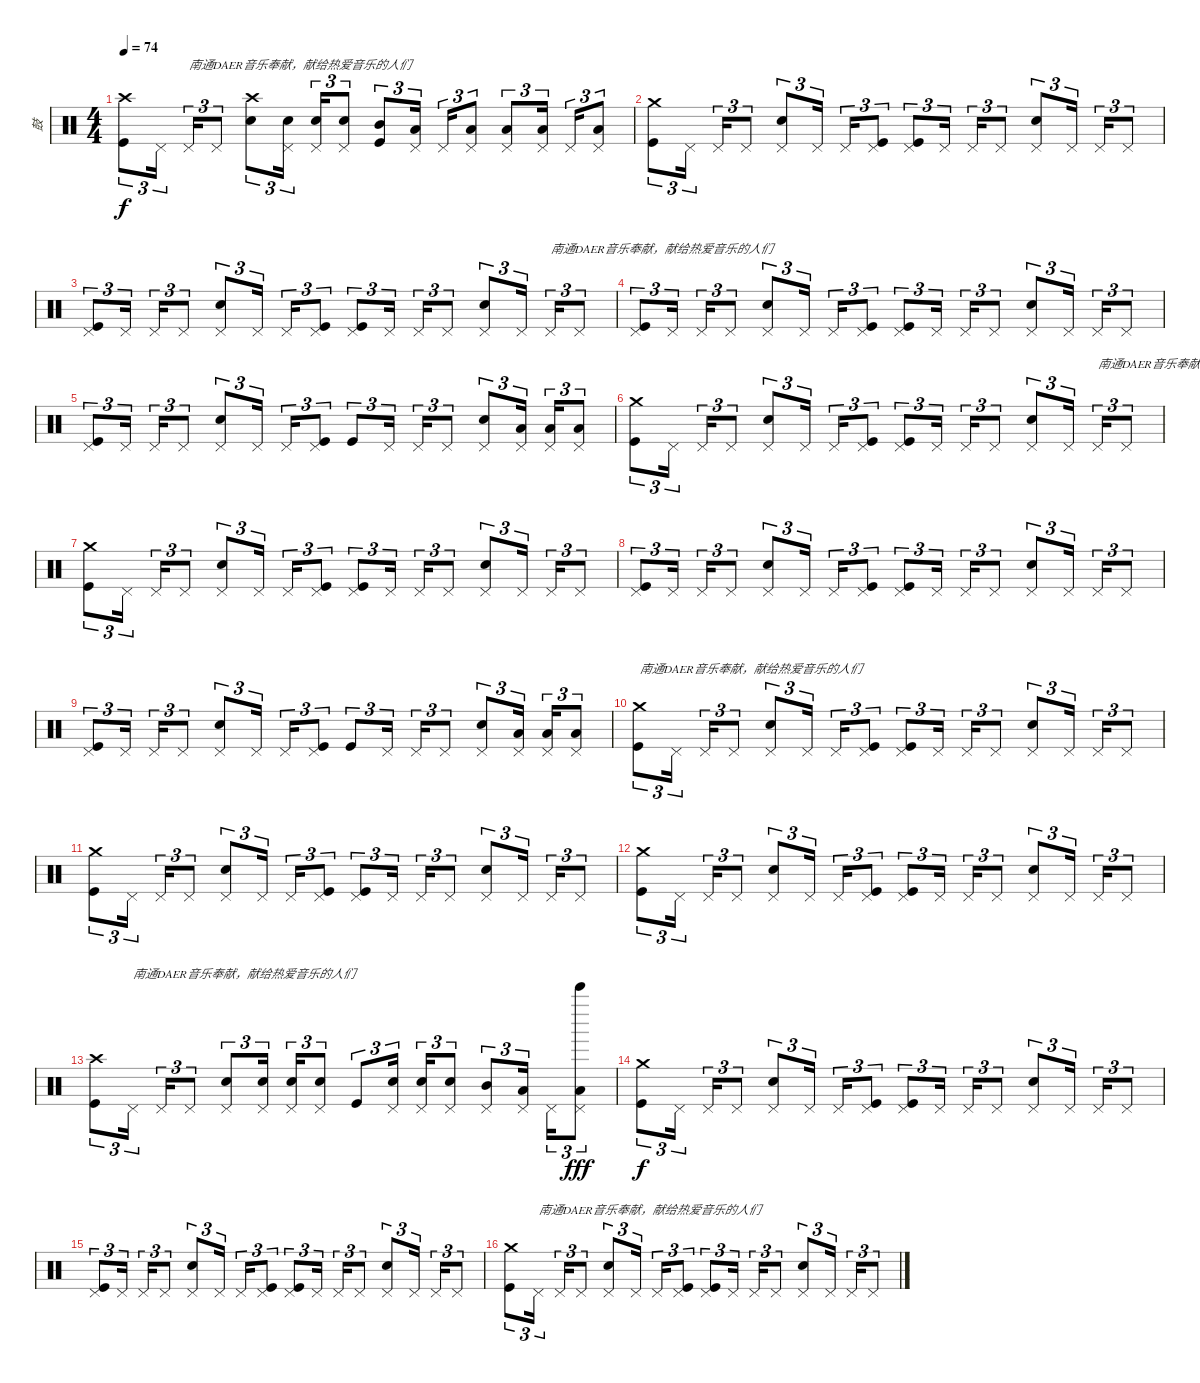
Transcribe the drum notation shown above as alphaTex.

\track ("鼓" "鼓") {instrument percussion}
\staff {score}
\articulation defaults
\ts (4 4)
\tempo 74
\clef neutral
\ks c
("Crash high (hit)" "Kick (hit)").8{tu (3 2) dy f} "Pedal Hi-Hat (hit)".16{tu (3 2)} "Pedal Hi-Hat (hit)".16{tu (3 2) txt "南通DAER音乐奉献，献给热爱音乐的人们"} "Pedal Hi-Hat (hit)".8{tu (3 2)} ("Crash high (hit)" "Electric Snare (hit)").8{tu (3 2)} ("Pedal Hi-Hat (hit)" "Electric Snare (hit)").16{tu (3 2)} ("Pedal Hi-Hat (hit)" "Electric Snare (hit)").16{tu (3 2)} ("Pedal Hi-Hat (hit)" "Electric Snare (hit)").8{tu (3 2)} ("Mid Tom (hit)" "Kick (hit)").8{tu (3 2)} ("Pedal Hi-Hat (hit)" "Low Tom (hit)").16{tu (3 2)} "Pedal Hi-Hat (hit)".16{tu (3 2)} ("Pedal Hi-Hat (hit)" "Low Tom (hit)").8{tu (3 2)} ("Pedal Hi-Hat (hit)" "Low Floor Tom (hit)").8{tu (3 2)} ("Pedal Hi-Hat (hit)" "Low Floor Tom (hit)").16{tu (3 2)} "Pedal Hi-Hat (hit)".16{tu (3 2)} ("Pedal Hi-Hat (hit)" "Low Floor Tom (hit)").8{tu (3 2)} |
("Crash medium (hit)" "Kick (hit)").8{tu (3 2)} "Pedal Hi-Hat (hit)".16{tu (3 2)} "Pedal Hi-Hat (hit)".16{tu (3 2)} "Pedal Hi-Hat (hit)".8{tu (3 2)} ("Pedal Hi-Hat (hit)" "Electric Snare (hit)").8{tu (3 2)} "Pedal Hi-Hat (hit)".16{tu (3 2)} "Pedal Hi-Hat (hit)".16{tu (3 2)} ("Pedal Hi-Hat (hit)" "Kick (hit)").8{tu (3 2)} ("Pedal Hi-Hat (hit)" "Kick (hit)").8{tu (3 2)} "Pedal Hi-Hat (hit)".16{tu (3 2)} "Pedal Hi-Hat (hit)".16{tu (3 2)} "Pedal Hi-Hat (hit)".8{tu (3 2)} ("Pedal Hi-Hat (hit)" "Electric Snare (hit)").8{tu (3 2)} "Pedal Hi-Hat (hit)".16{tu (3 2)} "Pedal Hi-Hat (hit)".16{tu (3 2)} "Pedal Hi-Hat (hit)".8{tu (3 2)} |
("Pedal Hi-Hat (hit)" "Kick (hit)").8{tu (3 2)} "Pedal Hi-Hat (hit)".16{tu (3 2)} "Pedal Hi-Hat (hit)".16{tu (3 2)} "Pedal Hi-Hat (hit)".8{tu (3 2)} ("Pedal Hi-Hat (hit)" "Electric Snare (hit)").8{tu (3 2)} "Pedal Hi-Hat (hit)".16{tu (3 2)} "Pedal Hi-Hat (hit)".16{tu (3 2)} ("Pedal Hi-Hat (hit)" "Kick (hit)").8{tu (3 2)} ("Pedal Hi-Hat (hit)" "Kick (hit)").8{tu (3 2)} "Pedal Hi-Hat (hit)".16{tu (3 2)} "Pedal Hi-Hat (hit)".16{tu (3 2)} "Pedal Hi-Hat (hit)".8{tu (3 2)} ("Pedal Hi-Hat (hit)" "Electric Snare (hit)").8{tu (3 2)} "Pedal Hi-Hat (hit)".16{tu (3 2)} "Pedal Hi-Hat (hit)".16{tu (3 2) txt "南通DAER音乐奉献，献给热爱音乐的人们"} "Pedal Hi-Hat (hit)".8{tu (3 2)} |
("Pedal Hi-Hat (hit)" "Kick (hit)").8{tu (3 2)} "Pedal Hi-Hat (hit)".16{tu (3 2)} "Pedal Hi-Hat (hit)".16{tu (3 2)} "Pedal Hi-Hat (hit)".8{tu (3 2)} ("Pedal Hi-Hat (hit)" "Electric Snare (hit)").8{tu (3 2)} "Pedal Hi-Hat (hit)".16{tu (3 2)} "Pedal Hi-Hat (hit)".16{tu (3 2)} ("Pedal Hi-Hat (hit)" "Kick (hit)").8{tu (3 2)} ("Pedal Hi-Hat (hit)" "Kick (hit)").8{tu (3 2)} "Pedal Hi-Hat (hit)".16{tu (3 2)} "Pedal Hi-Hat (hit)".16{tu (3 2)} "Pedal Hi-Hat (hit)".8{tu (3 2)} ("Pedal Hi-Hat (hit)" "Electric Snare (hit)").8{tu (3 2)} "Pedal Hi-Hat (hit)".16{tu (3 2)} "Pedal Hi-Hat (hit)".16{tu (3 2)} "Pedal Hi-Hat (hit)".8{tu (3 2)} |
("Pedal Hi-Hat (hit)" "Kick (hit)").8{tu (3 2)} "Pedal Hi-Hat (hit)".16{tu (3 2)} "Pedal Hi-Hat (hit)".16{tu (3 2)} "Pedal Hi-Hat (hit)".8{tu (3 2)} ("Pedal Hi-Hat (hit)" "Electric Snare (hit)").8{tu (3 2)} "Pedal Hi-Hat (hit)".16{tu (3 2)} "Pedal Hi-Hat (hit)".16{tu (3 2)} ("Pedal Hi-Hat (hit)" "Kick (hit)").8{tu (3 2)} "Kick (hit)".8{tu (3 2)} "Pedal Hi-Hat (hit)".16{tu (3 2)} "Pedal Hi-Hat (hit)".16{tu (3 2)} "Pedal Hi-Hat (hit)".8{tu (3 2)} ("Pedal Hi-Hat (hit)" "Electric Snare (hit)").8{tu (3 2)} ("Pedal Hi-Hat (hit)" "Low Tom (hit)").16{tu (3 2)} ("Pedal Hi-Hat (hit)" "Low Tom (hit)").16{tu (3 2)} ("Pedal Hi-Hat (hit)" "Low Tom (hit)").8{tu (3 2)} |
("Crash medium (hit)" "Kick (hit)").8{tu (3 2)} "Pedal Hi-Hat (hit)".16{tu (3 2)} "Pedal Hi-Hat (hit)".16{tu (3 2)} "Pedal Hi-Hat (hit)".8{tu (3 2)} ("Pedal Hi-Hat (hit)" "Electric Snare (hit)").8{tu (3 2)} "Pedal Hi-Hat (hit)".16{tu (3 2)} "Pedal Hi-Hat (hit)".16{tu (3 2)} ("Pedal Hi-Hat (hit)" "Kick (hit)").8{tu (3 2)} ("Pedal Hi-Hat (hit)" "Kick (hit)").8{tu (3 2)} "Pedal Hi-Hat (hit)".16{tu (3 2)} "Pedal Hi-Hat (hit)".16{tu (3 2)} "Pedal Hi-Hat (hit)".8{tu (3 2)} ("Pedal Hi-Hat (hit)" "Electric Snare (hit)").8{tu (3 2)} "Pedal Hi-Hat (hit)".16{tu (3 2)} "Pedal Hi-Hat (hit)".16{tu (3 2) txt "南通DAER音乐奉献，献给热爱音乐的人们"} "Pedal Hi-Hat (hit)".8{tu (3 2)} |
("Crash medium (hit)" "Kick (hit)").8{tu (3 2)} "Pedal Hi-Hat (hit)".16{tu (3 2)} "Pedal Hi-Hat (hit)".16{tu (3 2)} "Pedal Hi-Hat (hit)".8{tu (3 2)} ("Pedal Hi-Hat (hit)" "Electric Snare (hit)").8{tu (3 2)} "Pedal Hi-Hat (hit)".16{tu (3 2)} "Pedal Hi-Hat (hit)".16{tu (3 2)} ("Pedal Hi-Hat (hit)" "Kick (hit)").8{tu (3 2)} ("Pedal Hi-Hat (hit)" "Kick (hit)").8{tu (3 2)} "Pedal Hi-Hat (hit)".16{tu (3 2)} "Pedal Hi-Hat (hit)".16{tu (3 2)} "Pedal Hi-Hat (hit)".8{tu (3 2)} ("Pedal Hi-Hat (hit)" "Electric Snare (hit)").8{tu (3 2)} "Pedal Hi-Hat (hit)".16{tu (3 2)} "Pedal Hi-Hat (hit)".16{tu (3 2)} "Pedal Hi-Hat (hit)".8{tu (3 2)} |
("Pedal Hi-Hat (hit)" "Kick (hit)").8{tu (3 2)} "Pedal Hi-Hat (hit)".16{tu (3 2)} "Pedal Hi-Hat (hit)".16{tu (3 2)} "Pedal Hi-Hat (hit)".8{tu (3 2)} ("Pedal Hi-Hat (hit)" "Electric Snare (hit)").8{tu (3 2)} "Pedal Hi-Hat (hit)".16{tu (3 2)} "Pedal Hi-Hat (hit)".16{tu (3 2)} ("Pedal Hi-Hat (hit)" "Kick (hit)").8{tu (3 2)} ("Pedal Hi-Hat (hit)" "Kick (hit)").8{tu (3 2)} "Pedal Hi-Hat (hit)".16{tu (3 2)} "Pedal Hi-Hat (hit)".16{tu (3 2)} "Pedal Hi-Hat (hit)".8{tu (3 2)} ("Pedal Hi-Hat (hit)" "Electric Snare (hit)").8{tu (3 2)} "Pedal Hi-Hat (hit)".16{tu (3 2)} "Pedal Hi-Hat (hit)".16{tu (3 2)} "Pedal Hi-Hat (hit)".8{tu (3 2)} |
("Pedal Hi-Hat (hit)" "Kick (hit)").8{tu (3 2)} "Pedal Hi-Hat (hit)".16{tu (3 2)} "Pedal Hi-Hat (hit)".16{tu (3 2)} "Pedal Hi-Hat (hit)".8{tu (3 2)} ("Pedal Hi-Hat (hit)" "Electric Snare (hit)").8{tu (3 2)} "Pedal Hi-Hat (hit)".16{tu (3 2)} "Pedal Hi-Hat (hit)".16{tu (3 2)} ("Pedal Hi-Hat (hit)" "Kick (hit)").8{tu (3 2)} "Kick (hit)".8{tu (3 2)} "Pedal Hi-Hat (hit)".16{tu (3 2)} "Pedal Hi-Hat (hit)".16{tu (3 2)} "Pedal Hi-Hat (hit)".8{tu (3 2)} ("Pedal Hi-Hat (hit)" "Electric Snare (hit)").8{tu (3 2)} ("Pedal Hi-Hat (hit)" "Low Tom (hit)").16{tu (3 2)} ("Pedal Hi-Hat (hit)" "Low Tom (hit)").16{tu (3 2)} ("Pedal Hi-Hat (hit)" "Low Tom (hit)").8{tu (3 2)} |
("Crash medium (hit)" "Kick (hit)").8{tu (3 2) txt "南通DAER音乐奉献，献给热爱音乐的人们"} "Pedal Hi-Hat (hit)".16{tu (3 2)} "Pedal Hi-Hat (hit)".16{tu (3 2)} "Pedal Hi-Hat (hit)".8{tu (3 2)} ("Pedal Hi-Hat (hit)" "Electric Snare (hit)").8{tu (3 2)} "Pedal Hi-Hat (hit)".16{tu (3 2)} "Pedal Hi-Hat (hit)".16{tu (3 2)} ("Pedal Hi-Hat (hit)" "Kick (hit)").8{tu (3 2)} ("Pedal Hi-Hat (hit)" "Kick (hit)").8{tu (3 2)} "Pedal Hi-Hat (hit)".16{tu (3 2)} "Pedal Hi-Hat (hit)".16{tu (3 2)} "Pedal Hi-Hat (hit)".8{tu (3 2)} ("Pedal Hi-Hat (hit)" "Electric Snare (hit)").8{tu (3 2)} "Pedal Hi-Hat (hit)".16{tu (3 2)} "Pedal Hi-Hat (hit)".16{tu (3 2)} "Pedal Hi-Hat (hit)".8{tu (3 2)} |
("Crash medium (hit)" "Kick (hit)").8{tu (3 2)} "Pedal Hi-Hat (hit)".16{tu (3 2)} "Pedal Hi-Hat (hit)".16{tu (3 2)} "Pedal Hi-Hat (hit)".8{tu (3 2)} ("Pedal Hi-Hat (hit)" "Electric Snare (hit)").8{tu (3 2)} "Pedal Hi-Hat (hit)".16{tu (3 2)} "Pedal Hi-Hat (hit)".16{tu (3 2)} ("Pedal Hi-Hat (hit)" "Kick (hit)").8{tu (3 2)} ("Pedal Hi-Hat (hit)" "Kick (hit)").8{tu (3 2)} "Pedal Hi-Hat (hit)".16{tu (3 2)} "Pedal Hi-Hat (hit)".16{tu (3 2)} "Pedal Hi-Hat (hit)".8{tu (3 2)} ("Pedal Hi-Hat (hit)" "Electric Snare (hit)").8{tu (3 2)} "Pedal Hi-Hat (hit)".16{tu (3 2)} "Pedal Hi-Hat (hit)".16{tu (3 2)} "Pedal Hi-Hat (hit)".8{tu (3 2)} |
("Crash medium (hit)" "Kick (hit)").8{tu (3 2)} "Pedal Hi-Hat (hit)".16{tu (3 2)} "Pedal Hi-Hat (hit)".16{tu (3 2)} "Pedal Hi-Hat (hit)".8{tu (3 2)} ("Pedal Hi-Hat (hit)" "Electric Snare (hit)").8{tu (3 2)} "Pedal Hi-Hat (hit)".16{tu (3 2)} "Pedal Hi-Hat (hit)".16{tu (3 2)} ("Pedal Hi-Hat (hit)" "Kick (hit)").8{tu (3 2)} ("Pedal Hi-Hat (hit)" "Kick (hit)").8{tu (3 2)} "Pedal Hi-Hat (hit)".16{tu (3 2)} "Pedal Hi-Hat (hit)".16{tu (3 2)} "Pedal Hi-Hat (hit)".8{tu (3 2)} ("Pedal Hi-Hat (hit)" "Electric Snare (hit)").8{tu (3 2)} "Pedal Hi-Hat (hit)".16{tu (3 2)} "Pedal Hi-Hat (hit)".16{tu (3 2)} "Pedal Hi-Hat (hit)".8{tu (3 2)} |
("Crash high (hit)" "Kick (hit)").8{tu (3 2)} "Pedal Hi-Hat (hit)".16{tu (3 2) txt "南通DAER音乐奉献，献给热爱音乐的人们"} "Pedal Hi-Hat (hit)".16{tu (3 2)} "Pedal Hi-Hat (hit)".8{tu (3 2)} ("Pedal Hi-Hat (hit)" "Electric Snare (hit)").8{tu (3 2)} ("Pedal Hi-Hat (hit)" "Electric Snare (hit)").16{tu (3 2)} ("Pedal Hi-Hat (hit)" "Electric Snare (hit)").16{tu (3 2)} ("Pedal Hi-Hat (hit)" "Electric Snare (hit)").8{tu (3 2)} "Kick (hit)".8{tu (3 2)} ("Pedal Hi-Hat (hit)" "Electric Snare (hit)").16{tu (3 2)} ("Pedal Hi-Hat (hit)" "Electric Snare (hit)").16{tu (3 2)} ("Pedal Hi-Hat (hit)" "Electric Snare (hit)").8{tu (3 2)} ("Pedal Hi-Hat (hit)" "Mid Tom (hit)").8{tu (3 2)} ("Pedal Hi-Hat (hit)" "Low Tom (hit)").16{tu (3 2)} "Pedal Hi-Hat (hit)".16{tu (3 2)} ("Bell Tree (hit)" "Pedal Hi-Hat (hit)" "Low Floor Tom (hit)").8{tu (3 2) dy fff} |
("Crash medium (hit)" "Kick (hit)").8{tu (3 2) dy f} "Pedal Hi-Hat (hit)".16{tu (3 2)} "Pedal Hi-Hat (hit)".16{tu (3 2)} "Pedal Hi-Hat (hit)".8{tu (3 2)} ("Pedal Hi-Hat (hit)" "Electric Snare (hit)").8{tu (3 2)} "Pedal Hi-Hat (hit)".16{tu (3 2)} "Pedal Hi-Hat (hit)".16{tu (3 2)} ("Pedal Hi-Hat (hit)" "Kick (hit)").8{tu (3 2)} ("Pedal Hi-Hat (hit)" "Kick (hit)").8{tu (3 2)} "Pedal Hi-Hat (hit)".16{tu (3 2)} "Pedal Hi-Hat (hit)".16{tu (3 2)} "Pedal Hi-Hat (hit)".8{tu (3 2)} ("Pedal Hi-Hat (hit)" "Electric Snare (hit)").8{tu (3 2)} "Pedal Hi-Hat (hit)".16{tu (3 2)} "Pedal Hi-Hat (hit)".16{tu (3 2)} "Pedal Hi-Hat (hit)".8{tu (3 2)} |
("Pedal Hi-Hat (hit)" "Kick (hit)").8{tu (3 2)} "Pedal Hi-Hat (hit)".16{tu (3 2)} "Pedal Hi-Hat (hit)".16{tu (3 2)} "Pedal Hi-Hat (hit)".8{tu (3 2)} ("Pedal Hi-Hat (hit)" "Electric Snare (hit)").8{tu (3 2)} "Pedal Hi-Hat (hit)".16{tu (3 2)} "Pedal Hi-Hat (hit)".16{tu (3 2)} ("Pedal Hi-Hat (hit)" "Kick (hit)").8{tu (3 2)} ("Pedal Hi-Hat (hit)" "Kick (hit)").8{tu (3 2)} "Pedal Hi-Hat (hit)".16{tu (3 2)} "Pedal Hi-Hat (hit)".16{tu (3 2)} "Pedal Hi-Hat (hit)".8{tu (3 2)} ("Pedal Hi-Hat (hit)" "Electric Snare (hit)").8{tu (3 2)} "Pedal Hi-Hat (hit)".16{tu (3 2)} "Pedal Hi-Hat (hit)".16{tu (3 2)} "Pedal Hi-Hat (hit)".8{tu (3 2)} |
("Crash medium (hit)" "Kick (hit)").8{tu (3 2)} "Pedal Hi-Hat (hit)".16{tu (3 2) txt "南通DAER音乐奉献，献给热爱音乐的人们"} "Pedal Hi-Hat (hit)".16{tu (3 2)} "Pedal Hi-Hat (hit)".8{tu (3 2)} ("Pedal Hi-Hat (hit)" "Electric Snare (hit)").8{tu (3 2)} "Pedal Hi-Hat (hit)".16{tu (3 2)} "Pedal Hi-Hat (hit)".16{tu (3 2)} ("Pedal Hi-Hat (hit)" "Kick (hit)").8{tu (3 2)} ("Pedal Hi-Hat (hit)" "Kick (hit)").8{tu (3 2)} "Pedal Hi-Hat (hit)".16{tu (3 2)} "Pedal Hi-Hat (hit)".16{tu (3 2)} "Pedal Hi-Hat (hit)".8{tu (3 2)} ("Pedal Hi-Hat (hit)" "Electric Snare (hit)").8{tu (3 2)} "Pedal Hi-Hat (hit)".16{tu (3 2)} "Pedal Hi-Hat (hit)".16{tu (3 2)} "Pedal Hi-Hat (hit)".8{tu (3 2)}
